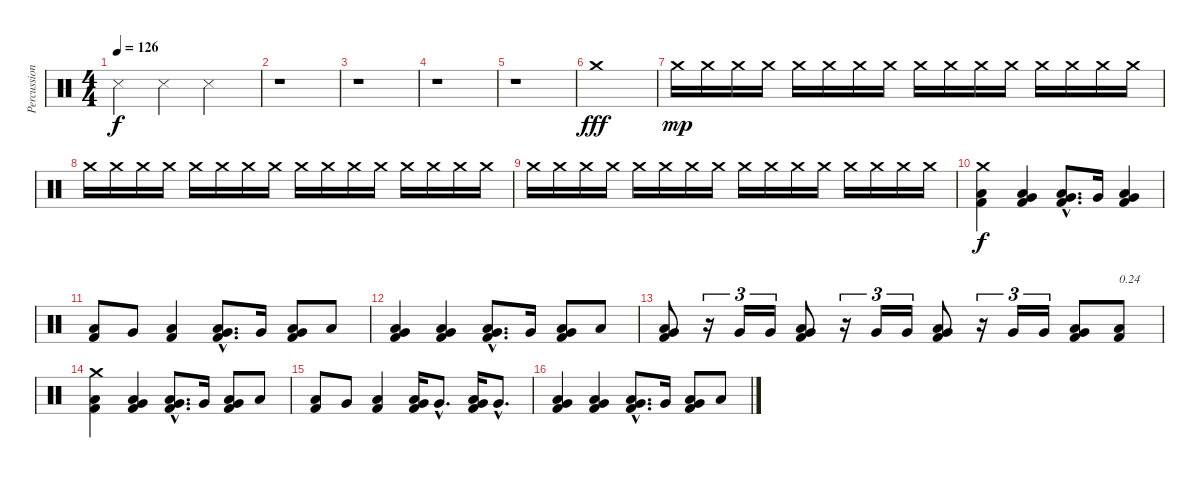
\track ("Percussions" "Percussion") {instrument percussion}
\staff {score}
\articulation defaults
\ts (4 4)
\tempo 126
\clef neutral
\ks c "Metronome (hit)".4{dy f} "Metronome (hit)".4 "Metronome (hit)".2
|
r.1 |
r.1 |
r.1 |
r.1 |
"Crash medium (hit)".1{dy fff} |
"Crash medium (hit)".16{dy mp volume 3} "Crash medium (hit)".16{volume 13} "Crash medium (hit)".16 "Crash medium (hit)".16 "Crash medium (hit)".16 "Crash medium (hit)".16 "Crash medium (hit)".16 "Crash medium (hit)".16 "Crash medium (hit)".16 "Crash medium (hit)".16 "Crash medium (hit)".16 "Crash medium (hit)".16 "Crash medium (hit)".16 "Crash medium (hit)".16 "Crash medium (hit)".16 "Crash medium (hit)".16 |
"Crash medium (hit)".16 "Crash medium (hit)".16 "Crash medium (hit)".16 "Crash medium (hit)".16 "Crash medium (hit)".16 "Crash medium (hit)".16 "Crash medium (hit)".16 "Crash medium (hit)".16 "Crash medium (hit)".16 "Crash medium (hit)".16 "Crash medium (hit)".16 "Crash medium (hit)".16 "Crash medium (hit)".16 "Crash medium (hit)".16 "Crash medium (hit)".16 "Crash medium (hit)".16 |
"Crash medium (hit)".16{volume 16} "Crash medium (hit)".16 "Crash medium (hit)".16 "Crash medium (hit)".16 "Crash medium (hit)".16 "Crash medium (hit)".16 "Crash medium (hit)".16 "Crash medium (hit)".16 "Crash medium (hit)".16 "Crash medium (hit)".16 "Crash medium (hit)".16 "Crash medium (hit)".16 "Crash medium (hit)".16 "Crash medium (hit)".16 "Crash medium (hit)".16 "Crash medium (hit)".16 |
("Kick (hit) 2" "Low Floor Tom (hit)" "Crash medium (hit)").4{dy f} ("Kick (hit) 2" "Low Floor Tom (hit)" "Very Low Tom (hit)").4 ("Kick (hit) 2"{hac} "Low Floor Tom (hit)"{hac} "Very Low Tom (hit)"{hac}).8{d} "Very Low Tom (hit)".16 ("Kick (hit) 2" "Low Floor Tom (hit)" "Very Low Tom (hit)").4 |
("Kick (hit) 2" "Low Floor Tom (hit)").8 "Very Low Tom (hit)".8 ("Kick (hit) 2" "Low Floor Tom (hit)").4 ("Kick (hit) 2"{hac} "Low Floor Tom (hit)"{hac} "Very Low Tom (hit)"{hac}).8{d} "Very Low Tom (hit)".16 ("Kick (hit) 2" "Low Floor Tom (hit)" "Very Low Tom (hit)").8 "Low Tom (hit)".8 |
("Kick (hit) 2" "Low Floor Tom (hit)" "Very Low Tom (hit)").4 ("Kick (hit) 2" "Low Floor Tom (hit)" "Very Low Tom (hit)").4 ("Kick (hit) 2"{hac} "Low Floor Tom (hit)"{hac} "Very Low Tom (hit)"{hac}).8{d} "Very Low Tom (hit)".16 ("Kick (hit) 2" "Low Floor Tom (hit)" "Very Low Tom (hit)").8 "Low Tom (hit)".8 |
("Kick (hit) 2" "Low Floor Tom (hit)" "Very Low Tom (hit)").8 r.16{tu (3 2)} "Very Low Tom (hit)".16{tu (3 2)} "Very Low Tom (hit)".16{tu (3 2)} ("Kick (hit) 2" "Low Floor Tom (hit)" "Very Low Tom (hit)").8 r.16{tu (3 2)} "Very Low Tom (hit)".16{tu (3 2)} "Very Low Tom (hit)".16{tu (3 2)} ("Kick (hit) 2" "Low Floor Tom (hit)" "Very Low Tom (hit)").8 r.16{tu (3 2)} "Very Low Tom (hit)".16{tu (3 2)} "Very Low Tom (hit)".16{tu (3 2)} ("Kick (hit) 2" "Low Floor Tom (hit)" "Very Low Tom (hit)").8 ("Kick (hit) 2" "Low Floor Tom (hit)").8{txt "0.24"} |
("Kick (hit) 2" "Low Floor Tom (hit)" "Crash medium (hit)").4 ("Kick (hit) 2" "Low Floor Tom (hit)" "Very Low Tom (hit)").4 ("Kick (hit) 2"{hac} "Low Floor Tom (hit)"{hac} "Very Low Tom (hit)"{hac}).8{d} "Very Low Tom (hit)".16 ("Kick (hit) 2" "Low Floor Tom (hit)" "Very Low Tom (hit)").8 "Low Tom (hit)".8 |
("Kick (hit) 2" "Low Floor Tom (hit)").8 "Very Low Tom (hit)".8 ("Kick (hit) 2" "Low Floor Tom (hit)").4 ("Kick (hit) 2" "Low Floor Tom (hit)" "Very Low Tom (hit)").16 "Very Low Tom (hit)"{hac}.8{d} ("Kick (hit) 2" "Low Floor Tom (hit)" "Very Low Tom (hit)").16 "Very Low Tom (hit)"{hac}.8{d} |
("Kick (hit) 2" "Low Floor Tom (hit)" "Very Low Tom (hit)").4 ("Kick (hit) 2" "Low Floor Tom (hit)" "Very Low Tom (hit)").4 ("Kick (hit) 2"{hac} "Low Floor Tom (hit)"{hac} "Very Low Tom (hit)"{hac}).8{d} "Very Low Tom (hit)".16 ("Kick (hit) 2" "Low Floor Tom (hit)" "Very Low Tom (hit)").8 "Low Tom (hit)".8
